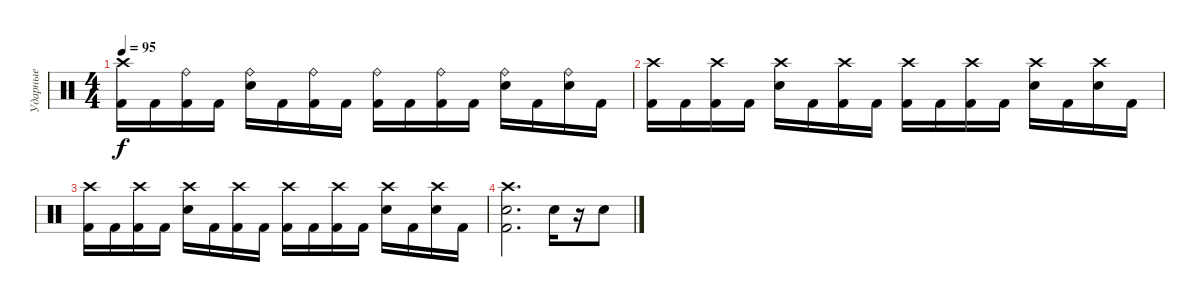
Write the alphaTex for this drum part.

\track ("Ударные" "Ударные") {instrument percussion}
\staff {score}
\articulation defaults
\ts (4 4)
\tempo 95
\clef neutral
\ks c
("Crash high (hit)" "Kick (hit) 2").16{dy f} "Kick (hit) 2".16 ("Ride (bell)" "Kick (hit) 2").16 "Kick (hit) 2".16 ("Ride (bell)" "Electric Snare (hit)").16 "Kick (hit) 2".16 ("Ride (bell)" "Kick (hit) 2").16 "Kick (hit) 2".16 ("Ride (bell)" "Kick (hit) 2").16 "Kick (hit) 2".16 ("Ride (bell)" "Kick (hit) 2").16 "Kick (hit) 2".16 ("Ride (bell)" "Electric Snare (hit)").16 "Kick (hit) 2".16 ("Ride (bell)" "Electric Snare (hit)").16 "Kick (hit) 2".16 |
("Crash high (hit)" "Kick (hit) 2").16 "Kick (hit) 2".16 ("Crash high (hit)" "Kick (hit) 2").16 "Kick (hit) 2".16 ("Crash high (hit)" "Electric Snare (hit)").16 "Kick (hit) 2".16 ("Crash high (hit)" "Kick (hit) 2").16 "Kick (hit) 2".16 ("Crash high (hit)" "Kick (hit) 2").16 "Kick (hit) 2".16 ("Crash high (hit)" "Kick (hit) 2").16 "Kick (hit) 2".16 ("Crash high (hit)" "Electric Snare (hit)").16 "Kick (hit) 2".16 ("Crash high (hit)" "Electric Snare (hit)").16 "Kick (hit) 2".16 |
("Crash high (hit)" "Kick (hit) 2").16 "Kick (hit) 2".16 ("Crash high (hit)" "Kick (hit) 2").16 "Kick (hit) 2".16 ("Crash high (hit)" "Electric Snare (hit)").16 "Kick (hit) 2".16 ("Crash high (hit)" "Kick (hit) 2").16 "Kick (hit) 2".16 ("Crash high (hit)" "Kick (hit) 2").16 "Kick (hit) 2".16 ("Crash high (hit)" "Kick (hit) 2").16 "Kick (hit) 2".16 ("Crash high (hit)" "Electric Snare (hit)").16 "Kick (hit) 2".16 ("Crash high (hit)" "Electric Snare (hit)").16 "Kick (hit) 2".16 |
("Crash high (hit)" "Electric Snare (hit)" "Kick (hit) 2").2{d} "Electric Snare (hit)".16 r.16 "Electric Snare (hit)".8
